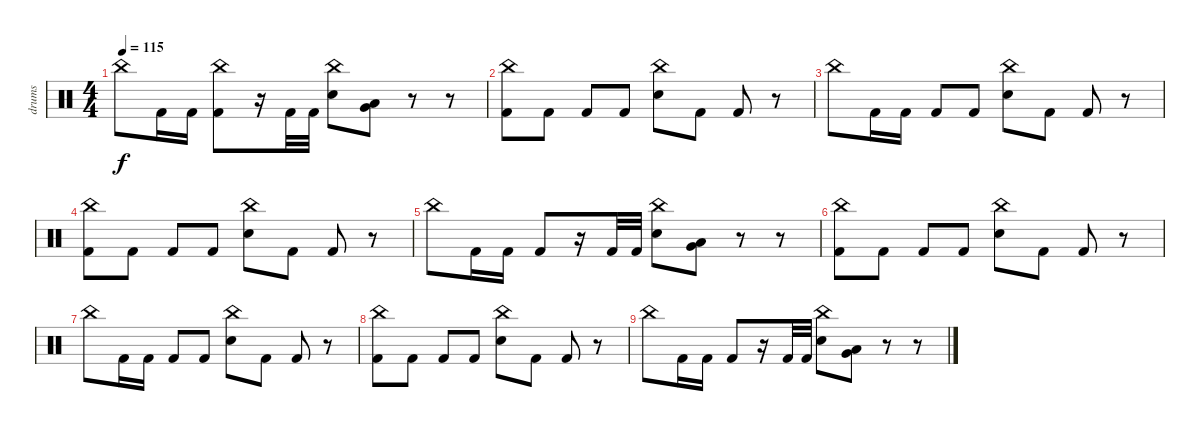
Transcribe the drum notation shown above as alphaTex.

\track ("drums" "drums") {instrument percussion}
\staff {score}
\articulation defaults
\ts (4 4)
\tempo 115
\clef neutral
\ks c "China (hit)".8{dy f} "Kick (hit) 2".16 "Kick (hit) 2".16
("China (hit)" "Kick (hit) 2").8 r.16 "Kick (hit) 2".32 "Kick (hit) 2".32 ("China (hit)" "Electric Snare (hit)").8 ("Low Floor Tom (hit)" "Very Low Tom (hit)").8 r.8 r.8 |
("China (hit)" "Kick (hit) 2").8 "Kick (hit) 2".8 "Kick (hit) 2".8 "Kick (hit) 2".8 ("China (hit)" "Electric Snare (hit)").8 "Kick (hit) 2".8 "Kick (hit) 2".8 r.8 |
"China (hit)".8 "Kick (hit) 2".16 "Kick (hit) 2".16 "Kick (hit) 2".8 "Kick (hit) 2".8 ("China (hit)" "Electric Snare (hit)").8 "Kick (hit) 2".8 "Kick (hit) 2".8 r.8 |
("China (hit)" "Kick (hit) 2").8 "Kick (hit) 2".8 "Kick (hit) 2".8 "Kick (hit) 2".8 ("China (hit)" "Electric Snare (hit)").8 "Kick (hit) 2".8 "Kick (hit) 2".8 r.8 |
"China (hit)".8 "Kick (hit) 2".16 "Kick (hit) 2".16 "Kick (hit) 2".8 r.16 "Kick (hit) 2".32 "Kick (hit) 2".32 ("China (hit)" "Electric Snare (hit)").8 ("Low Floor Tom (hit)" "Very Low Tom (hit)").8 r.8 r.8 |
("China (hit)" "Kick (hit) 2").8 "Kick (hit) 2".8 "Kick (hit) 2".8 "Kick (hit) 2".8 ("China (hit)" "Electric Snare (hit)").8 "Kick (hit) 2".8 "Kick (hit) 2".8 r.8 |
"China (hit)".8 "Kick (hit) 2".16 "Kick (hit) 2".16 "Kick (hit) 2".8 "Kick (hit) 2".8 ("China (hit)" "Electric Snare (hit)").8 "Kick (hit) 2".8 "Kick (hit) 2".8 r.8 |
("China (hit)" "Kick (hit) 2").8 "Kick (hit) 2".8 "Kick (hit) 2".8 "Kick (hit) 2".8 ("China (hit)" "Electric Snare (hit)").8 "Kick (hit) 2".8 "Kick (hit) 2".8 r.8 |
"China (hit)".8 "Kick (hit) 2".16 "Kick (hit) 2".16 "Kick (hit) 2".8 r.16 "Kick (hit) 2".32 "Kick (hit) 2".32 ("China (hit)" "Electric Snare (hit)").8 ("Low Floor Tom (hit)" "Very Low Tom (hit)").8 r.8 r.8
